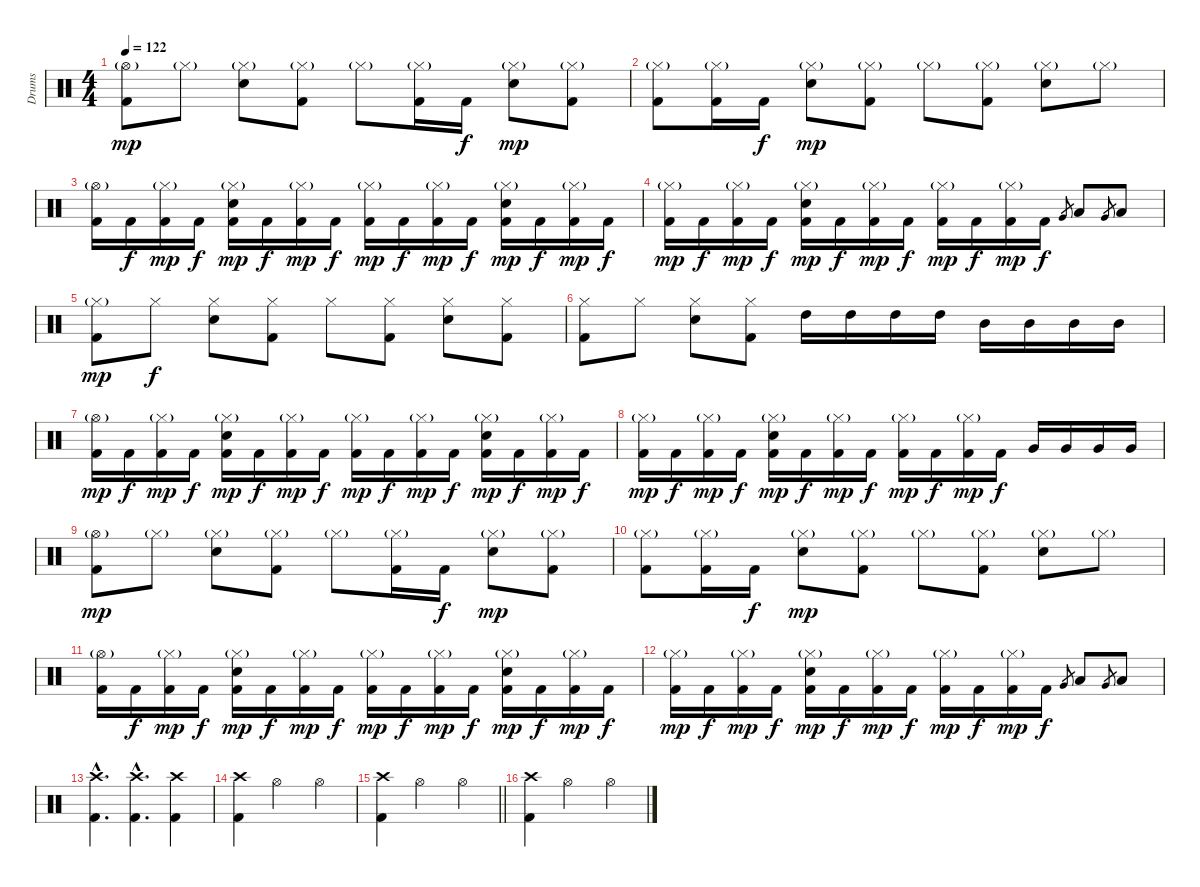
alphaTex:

\track ("Drums" "Drums") {instrument percussion}
\staff {score}
\articulation defaults
\ts (4 4)
\tempo 122
\clef neutral
\ks c
("Hi-Hat (open)"{g} "Kick (hit) 2").8{dy mp} "Hi-Hat (closed)"{g}.8 ("Hi-Hat (closed)"{g} "Electric Snare (hit)").8 ("Hi-Hat (closed)"{g} "Kick (hit) 2").8 "Hi-Hat (closed)"{g}.8 ("Hi-Hat (closed)"{g} "Kick (hit) 2").16 "Kick (hit) 2".16{dy f} ("Hi-Hat (closed)"{g} "Electric Snare (hit)").8{dy mp} ("Hi-Hat (closed)"{g} "Kick (hit) 2").8 |
("Hi-Hat (closed)"{g} "Kick (hit) 2").8 ("Hi-Hat (closed)"{g} "Kick (hit) 2").16 "Kick (hit) 2".16{dy f} ("Hi-Hat (closed)"{g} "Electric Snare (hit)").8{dy mp} ("Hi-Hat (closed)"{g} "Kick (hit) 2").8 "Hi-Hat (closed)"{g}.8 ("Hi-Hat (closed)"{g} "Kick (hit) 2").8 ("Hi-Hat (closed)"{g} "Electric Snare (hit)").8 "Hi-Hat (closed)"{g}.8 |
("Hi-Hat (open)"{g} "Kick (hit) 2").16 "Kick (hit) 2".16{dy f} ("Hi-Hat (closed)"{g} "Kick (hit) 2").16{dy mp} "Kick (hit) 2".16{dy f} ("Hi-Hat (closed)"{g} "Electric Snare (hit)" "Kick (hit) 2").16{dy mp} "Kick (hit) 2".16{dy f} ("Hi-Hat (closed)"{g} "Kick (hit) 2").16{dy mp} "Kick (hit) 2".16{dy f} ("Hi-Hat (closed)"{g} "Kick (hit) 2").16{dy mp} "Kick (hit) 2".16{dy f} ("Hi-Hat (closed)"{g} "Kick (hit) 2").16{dy mp} "Kick (hit) 2".16{dy f} ("Hi-Hat (closed)"{g} "Electric Snare (hit)" "Kick (hit) 2").16{dy mp} "Kick (hit) 2".16{dy f} ("Hi-Hat (closed)"{g} "Kick (hit) 2").16{dy mp} "Kick (hit) 2".16{dy f} |
("Hi-Hat (closed)"{g} "Kick (hit) 2").16{dy mp} "Kick (hit) 2".16{dy f} ("Hi-Hat (closed)"{g} "Kick (hit) 2").16{dy mp} "Kick (hit) 2".16{dy f} ("Hi-Hat (closed)"{g} "Electric Snare (hit)" "Kick (hit) 2").16{dy mp} "Kick (hit) 2".16{dy f} ("Hi-Hat (closed)"{g} "Kick (hit) 2").16{dy mp} "Kick (hit) 2".16{dy f} ("Hi-Hat (closed)"{g} "Kick (hit) 2").16{dy mp} "Kick (hit) 2".16{dy f} ("Hi-Hat (closed)"{g} "Kick (hit) 2").16{dy mp} "Kick (hit) 2".16{dy f} "Very Low Tom (hit)".8{gr} "Low Tom (hit)".8 "Very Low Tom (hit)".8{gr} "Low Tom (hit)".8 |
("Hi-Hat (closed)"{g} "Kick (hit) 2").8{dy mp} "Hi-Hat (closed)".8{dy f} ("Hi-Hat (closed)" "Electric Snare (hit)").8 ("Hi-Hat (closed)" "Kick (hit) 2").8 "Hi-Hat (closed)".8 ("Hi-Hat (closed)" "Kick (hit) 2").8 ("Hi-Hat (closed)" "Electric Snare (hit)").8 ("Hi-Hat (closed)" "Kick (hit) 2").8 |
("Hi-Hat (closed)" "Kick (hit) 2").8 "Hi-Hat (closed)".8 ("Hi-Hat (closed)" "Electric Snare (hit)").8 ("Hi-Hat (closed)" "Kick (hit) 2").8 "High Tom (hit)".16 "High Tom (hit)".16 "High Tom (hit)".16 "High Tom (hit)".16 "Mid Tom (hit)".16 "Mid Tom (hit)".16 "Mid Tom (hit)".16 "Mid Tom (hit)".16 |
("Hi-Hat (open)"{g} "Kick (hit) 2").16{dy mp} "Kick (hit) 2".16{dy f} ("Hi-Hat (closed)"{g} "Kick (hit) 2").16{dy mp} "Kick (hit) 2".16{dy f} ("Hi-Hat (closed)"{g} "Electric Snare (hit)" "Kick (hit) 2").16{dy mp} "Kick (hit) 2".16{dy f} ("Hi-Hat (closed)"{g} "Kick (hit) 2").16{dy mp} "Kick (hit) 2".16{dy f} ("Hi-Hat (closed)"{g} "Kick (hit) 2").16{dy mp} "Kick (hit) 2".16{dy f} ("Hi-Hat (closed)"{g} "Kick (hit) 2").16{dy mp} "Kick (hit) 2".16{dy f} ("Hi-Hat (closed)"{g} "Electric Snare (hit)" "Kick (hit) 2").16{dy mp} "Kick (hit) 2".16{dy f} ("Hi-Hat (closed)"{g} "Kick (hit) 2").16{dy mp} "Kick (hit) 2".16{dy f} |
("Hi-Hat (closed)"{g} "Kick (hit) 2").16{dy mp} "Kick (hit) 2".16{dy f} ("Hi-Hat (closed)"{g} "Kick (hit) 2").16{dy mp} "Kick (hit) 2".16{dy f} ("Hi-Hat (closed)"{g} "Electric Snare (hit)" "Kick (hit) 2").16{dy mp} "Kick (hit) 2".16{dy f} ("Hi-Hat (closed)"{g} "Kick (hit) 2").16{dy mp} "Kick (hit) 2".16{dy f} ("Hi-Hat (closed)"{g} "Kick (hit) 2").16{dy mp} "Kick (hit) 2".16{dy f} ("Hi-Hat (closed)"{g} "Kick (hit) 2").16{dy mp} "Kick (hit) 2".16{dy f} "Very Low Tom (hit)".16 "Very Low Tom (hit)".16 "Very Low Tom (hit)".16 "Very Low Tom (hit)".16 |
("Hi-Hat (open)"{g} "Kick (hit) 2").8{dy mp} "Hi-Hat (closed)"{g}.8 ("Hi-Hat (closed)"{g} "Electric Snare (hit)").8 ("Hi-Hat (closed)"{g} "Kick (hit) 2").8 "Hi-Hat (closed)"{g}.8 ("Hi-Hat (closed)"{g} "Kick (hit) 2").16 "Kick (hit) 2".16{dy f} ("Hi-Hat (closed)"{g} "Electric Snare (hit)").8{dy mp} ("Hi-Hat (closed)"{g} "Kick (hit) 2").8 |
("Hi-Hat (closed)"{g} "Kick (hit) 2").8 ("Hi-Hat (closed)"{g} "Kick (hit) 2").16 "Kick (hit) 2".16{dy f} ("Hi-Hat (closed)"{g} "Electric Snare (hit)").8{dy mp} ("Hi-Hat (closed)"{g} "Kick (hit) 2").8 "Hi-Hat (closed)"{g}.8 ("Hi-Hat (closed)"{g} "Kick (hit) 2").8 ("Hi-Hat (closed)"{g} "Electric Snare (hit)").8 "Hi-Hat (closed)"{g}.8 |
("Hi-Hat (open)"{g} "Kick (hit) 2").16 "Kick (hit) 2".16{dy f} ("Hi-Hat (closed)"{g} "Kick (hit) 2").16{dy mp} "Kick (hit) 2".16{dy f} ("Hi-Hat (closed)"{g} "Electric Snare (hit)" "Kick (hit) 2").16{dy mp} "Kick (hit) 2".16{dy f} ("Hi-Hat (closed)"{g} "Kick (hit) 2").16{dy mp} "Kick (hit) 2".16{dy f} ("Hi-Hat (closed)"{g} "Kick (hit) 2").16{dy mp} "Kick (hit) 2".16{dy f} ("Hi-Hat (closed)"{g} "Kick (hit) 2").16{dy mp} "Kick (hit) 2".16{dy f} ("Hi-Hat (closed)"{g} "Electric Snare (hit)" "Kick (hit) 2").16{dy mp} "Kick (hit) 2".16{dy f} ("Hi-Hat (closed)"{g} "Kick (hit) 2").16{dy mp} "Kick (hit) 2".16{dy f} |
("Hi-Hat (closed)"{g} "Kick (hit) 2").16{dy mp} "Kick (hit) 2".16{dy f} ("Hi-Hat (closed)"{g} "Kick (hit) 2").16{dy mp} "Kick (hit) 2".16{dy f} ("Hi-Hat (closed)"{g} "Electric Snare (hit)" "Kick (hit) 2").16{dy mp} "Kick (hit) 2".16{dy f} ("Hi-Hat (closed)"{g} "Kick (hit) 2").16{dy mp} "Kick (hit) 2".16{dy f} ("Hi-Hat (closed)"{g} "Kick (hit) 2").16{dy mp} "Kick (hit) 2".16{dy f} ("Hi-Hat (closed)"{g} "Kick (hit) 2").16{dy mp} "Kick (hit) 2".16{dy f} "Very Low Tom (hit)".8{gr} "Low Tom (hit)".8 "Very Low Tom (hit)".8{gr} "Low Tom (hit)".8 |
("Crash high (hit)"{hac} "Kick (hit) 2"{hac}).4{d} ("Crash high (hit)"{hac} "Kick (hit) 2"{hac}).4{d} ("Crash high (hit)" "Kick (hit) 2").4 |
("Crash high (hit)" "Kick (hit) 2").4 "Hi-Hat (open)".2 "Hi-Hat (open)".4 |
\barLineRight lightlight
("Crash high (hit)" "Kick (hit) 2").4 "Hi-Hat (open)".2 "Hi-Hat (open)".4 |
("Crash high (hit)" "Kick (hit) 2").4 "Hi-Hat (open)".2 "Hi-Hat (open)".4
